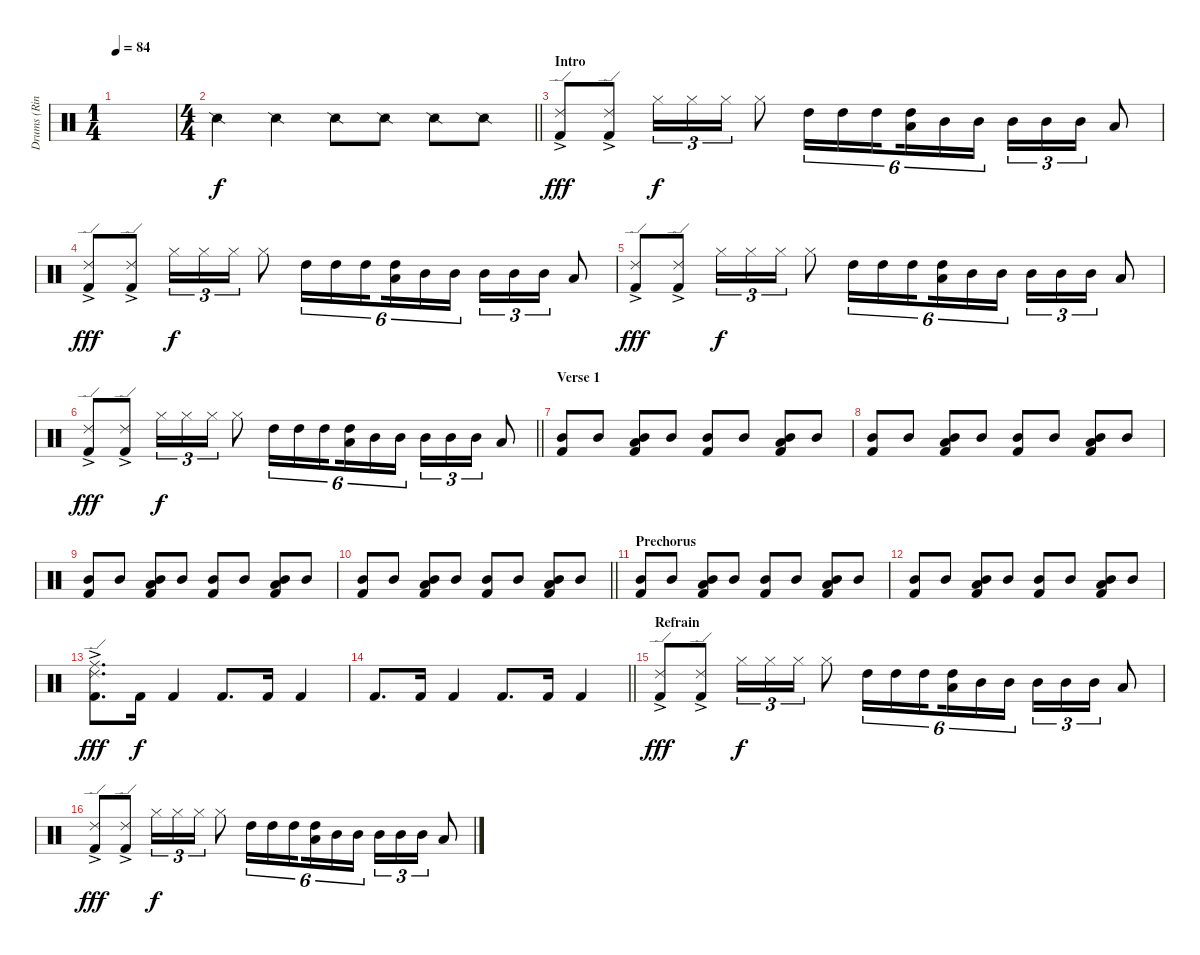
\track ("Drums (Ringo Starr)" "Drums (Rin") {instrument percussion}
\staff {score}
\articulation defaults
\ts (1 4)
\tempo 84
\clef neutral
\ks c
|
\ts (4 4)
\barLineRight lightlight "Snare (side stick) 2".4 "Snare (side stick) 2".4 "Snare (side stick) 2".8 "Snare (side stick) 2".8 "Snare (side stick) 2".8 "Snare (side stick) 2".8
|
\section ("" "Intro")
("Ride (edge) 2"{ac} "Kick (hit) 2").8{dy fff} ("Ride (edge) 2"{ac} "Kick (hit) 2").8 "Hi-Hat (closed)".16{tu (3 2) dy f} "Hi-Hat (closed)".16{tu (3 2)} "Hi-Hat (closed)".16{tu (3 2)} "Hi-Hat (closed)".8 "High Tom (hit)".16{tu (6 4)} "High Tom (hit)".16{tu (6 4)} "High Tom (hit)".16{tu (6 4) beam splitsecondary} ("High Tom (hit)" "Low Tom (hit)").16{tu (6 4)} "Mid Tom (hit)".16{tu (6 4)} "Mid Tom (hit)".16{tu (6 4)} "Mid Tom (hit)".16{tu (3 2)} "Mid Tom (hit)".16{tu (3 2)} "Mid Tom (hit)".16{tu (3 2)} "Low Tom (hit)".8 |
("Ride (edge) 2"{ac} "Kick (hit) 2").8{dy fff} ("Ride (edge) 2"{ac} "Kick (hit) 2").8 "Hi-Hat (closed)".16{tu (3 2) dy f} "Hi-Hat (closed)".16{tu (3 2)} "Hi-Hat (closed)".16{tu (3 2)} "Hi-Hat (closed)".8 "High Tom (hit)".16{tu (6 4)} "High Tom (hit)".16{tu (6 4)} "High Tom (hit)".16{tu (6 4) beam splitsecondary} ("High Tom (hit)" "Low Tom (hit)").16{tu (6 4)} "Mid Tom (hit)".16{tu (6 4)} "Mid Tom (hit)".16{tu (6 4)} "Mid Tom (hit)".16{tu (3 2)} "Mid Tom (hit)".16{tu (3 2)} "Mid Tom (hit)".16{tu (3 2)} "Low Tom (hit)".8 |
("Ride (edge) 2"{ac} "Kick (hit) 2").8{dy fff} ("Ride (edge) 2"{ac} "Kick (hit) 2").8 "Hi-Hat (closed)".16{tu (3 2) dy f} "Hi-Hat (closed)".16{tu (3 2)} "Hi-Hat (closed)".16{tu (3 2)} "Hi-Hat (closed)".8 "High Tom (hit)".16{tu (6 4)} "High Tom (hit)".16{tu (6 4)} "High Tom (hit)".16{tu (6 4) beam splitsecondary} ("High Tom (hit)" "Low Tom (hit)").16{tu (6 4)} "Mid Tom (hit)".16{tu (6 4)} "Mid Tom (hit)".16{tu (6 4)} "Mid Tom (hit)".16{tu (3 2)} "Mid Tom (hit)".16{tu (3 2)} "Mid Tom (hit)".16{tu (3 2)} "Low Tom (hit)".8 |
\barLineRight lightlight
("Ride (edge) 2"{ac} "Kick (hit) 2").8{dy fff} ("Ride (edge) 2"{ac} "Kick (hit) 2").8 "Hi-Hat (closed)".16{tu (3 2) dy f} "Hi-Hat (closed)".16{tu (3 2)} "Hi-Hat (closed)".16{tu (3 2)} "Hi-Hat (closed)".8 "High Tom (hit)".16{tu (6 4)} "High Tom (hit)".16{tu (6 4)} "High Tom (hit)".16{tu (6 4) beam splitsecondary} ("High Tom (hit)" "Low Tom (hit)").16{tu (6 4)} "Mid Tom (hit)".16{tu (6 4)} "Mid Tom (hit)".16{tu (6 4)} "Mid Tom (hit)".16{tu (3 2)} "Mid Tom (hit)".16{tu (3 2)} "Mid Tom (hit)".16{tu (3 2)} "Low Tom (hit)".8 |
\section ("" "Verse 1")
("Mid Tom (hit)" "Kick (hit) 2").8 "Mid Tom (hit)".8 ("Mid Tom (hit)" "Low Tom (hit)" "Kick (hit) 2").8 "Mid Tom (hit)".8 ("Mid Tom (hit)" "Kick (hit) 2").8 "Mid Tom (hit)".8 ("Mid Tom (hit)" "Low Tom (hit)" "Kick (hit) 2").8 "Mid Tom (hit)".8 |
("Mid Tom (hit)" "Kick (hit) 2").8 "Mid Tom (hit)".8 ("Mid Tom (hit)" "Low Tom (hit)" "Kick (hit) 2").8 "Mid Tom (hit)".8 ("Mid Tom (hit)" "Kick (hit) 2").8 "Mid Tom (hit)".8 ("Mid Tom (hit)" "Low Tom (hit)" "Kick (hit) 2").8 "Mid Tom (hit)".8 |
("Mid Tom (hit)" "Kick (hit) 2").8 "Mid Tom (hit)".8 ("Mid Tom (hit)" "Low Tom (hit)" "Kick (hit) 2").8 "Mid Tom (hit)".8 ("Mid Tom (hit)" "Kick (hit) 2").8 "Mid Tom (hit)".8 ("Mid Tom (hit)" "Low Tom (hit)" "Kick (hit) 2").8 "Mid Tom (hit)".8 |
\barLineRight lightlight
("Mid Tom (hit)" "Kick (hit) 2").8 "Mid Tom (hit)".8 ("Mid Tom (hit)" "Low Tom (hit)" "Kick (hit) 2").8 "Mid Tom (hit)".8 ("Mid Tom (hit)" "Kick (hit) 2").8 "Mid Tom (hit)".8 ("Mid Tom (hit)" "Low Tom (hit)" "Kick (hit) 2").8 "Mid Tom (hit)".8 |
\section ("" "Prechorus")
("Mid Tom (hit)" "Kick (hit) 2").8 "Mid Tom (hit)".8 ("Mid Tom (hit)" "Low Tom (hit)" "Kick (hit) 2").8 "Mid Tom (hit)".8 ("Mid Tom (hit)" "Kick (hit) 2").8 "Mid Tom (hit)".8 ("Mid Tom (hit)" "Low Tom (hit)" "Kick (hit) 2").8 "Mid Tom (hit)".8 |
("Mid Tom (hit)" "Kick (hit) 2").8 "Mid Tom (hit)".8 ("Mid Tom (hit)" "Low Tom (hit)" "Kick (hit) 2").8 "Mid Tom (hit)".8 ("Mid Tom (hit)" "Kick (hit) 2").8 "Mid Tom (hit)".8 ("Mid Tom (hit)" "Low Tom (hit)" "Kick (hit) 2").8 "Mid Tom (hit)".8 |
("Ride (edge) 2"{ac} "Ride (middle)"{ac} "Kick (hit) 2").8{d dy fff} "Kick (hit) 2".16{dy f} "Kick (hit) 2".4 "Kick (hit) 2".8{d} "Kick (hit) 2".16 "Kick (hit) 2".4 |
\barLineRight lightlight "Kick (hit) 2".8{d} "Kick (hit) 2".16 "Kick (hit) 2".4 "Kick (hit) 2".8{d} "Kick (hit) 2".16 "Kick (hit) 2".4
|
\section ("" "Refrain")
("Ride (edge) 2"{ac} "Kick (hit) 2").8{dy fff} ("Ride (edge) 2"{ac} "Kick (hit) 2").8 "Hi-Hat (closed)".16{tu (3 2) dy f} "Hi-Hat (closed)".16{tu (3 2)} "Hi-Hat (closed)".16{tu (3 2)} "Hi-Hat (closed)".8 "High Tom (hit)".16{tu (6 4)} "High Tom (hit)".16{tu (6 4)} "High Tom (hit)".16{tu (6 4) beam splitsecondary} ("High Tom (hit)" "Low Tom (hit)").16{tu (6 4)} "Mid Tom (hit)".16{tu (6 4)} "Mid Tom (hit)".16{tu (6 4)} "Mid Tom (hit)".16{tu (3 2)} "Mid Tom (hit)".16{tu (3 2)} "Mid Tom (hit)".16{tu (3 2)} "Low Tom (hit)".8 |
("Ride (edge) 2"{ac} "Kick (hit) 2").8{dy fff} ("Ride (edge) 2"{ac} "Kick (hit) 2").8 "Hi-Hat (closed)".16{tu (3 2) dy f} "Hi-Hat (closed)".16{tu (3 2)} "Hi-Hat (closed)".16{tu (3 2)} "Hi-Hat (closed)".8 "High Tom (hit)".16{tu (6 4)} "High Tom (hit)".16{tu (6 4)} "High Tom (hit)".16{tu (6 4) beam splitsecondary} ("High Tom (hit)" "Low Tom (hit)").16{tu (6 4)} "Mid Tom (hit)".16{tu (6 4)} "Mid Tom (hit)".16{tu (6 4)} "Mid Tom (hit)".16{tu (3 2)} "Mid Tom (hit)".16{tu (3 2)} "Mid Tom (hit)".16{tu (3 2)} "Low Tom (hit)".8
